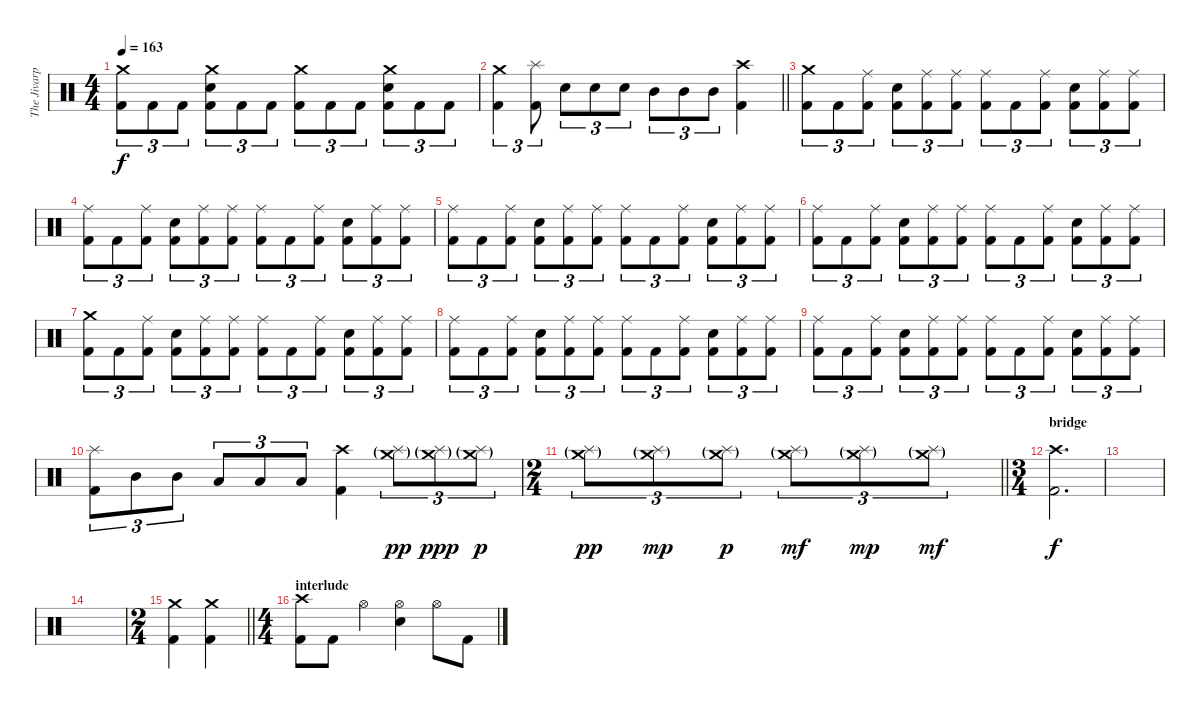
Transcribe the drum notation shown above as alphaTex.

\track ("The Jivarp" "The Jivarp") {instrument percussion}
\staff {score}
\articulation defaults
\ts (4 4)
\tempo 163
\clef neutral
\ks c
("Crash medium (hit)" "Kick (hit) 2").8{tu (3 2) dy f} "Kick (hit) 2".8{tu (3 2)} "Kick (hit) 2".8{tu (3 2)} ("Crash medium (hit)" "Electric Snare (hit)" "Kick (hit) 2").8{tu (3 2)} "Kick (hit) 2".8{tu (3 2)} "Kick (hit) 2".8{tu (3 2)} ("Crash medium (hit)" "Kick (hit) 2").8{tu (3 2)} "Kick (hit) 2".8{tu (3 2)} "Kick (hit) 2".8{tu (3 2)} ("Crash medium (hit)" "Electric Snare (hit)" "Kick (hit) 2").8{tu (3 2)} "Kick (hit) 2".8{tu (3 2)} "Kick (hit) 2".8{tu (3 2)} |
\barLineRight lightlight
("Crash medium (hit)" "Kick (hit) 2").4{tu (3 2)} ("Splash (hit)" "Kick (hit) 2").8{tu (3 2)} "Electric Snare (hit)".8{tu (3 2)} "Electric Snare (hit)".8{tu (3 2)} "Electric Snare (hit)".8{tu (3 2)} "Mid Tom (hit)".8{tu (3 2)} "Mid Tom (hit)".8{tu (3 2)} "Mid Tom (hit)".8{tu (3 2)} ("Crash high (hit)" "Kick (hit) 2").4 |
\section ("" "")
("Crash medium (hit)" "Kick (hit) 2").8{tu (3 2)} "Kick (hit) 2".8{tu (3 2)} ("Ride (middle)" "Kick (hit) 2").8{tu (3 2)} ("Electric Snare (hit)" "Kick (hit) 2").8{tu (3 2)} ("Ride (middle)" "Kick (hit) 2").8{tu (3 2)} ("Ride (middle)" "Kick (hit) 2").8{tu (3 2)} ("Ride (middle)" "Kick (hit) 2").8{tu (3 2)} "Kick (hit) 2".8{tu (3 2)} ("Ride (middle)" "Kick (hit) 2").8{tu (3 2)} ("Electric Snare (hit)" "Kick (hit) 2").8{tu (3 2)} ("Ride (middle)" "Kick (hit) 2").8{tu (3 2)} ("Ride (middle)" "Kick (hit) 2").8{tu (3 2)} |
("Ride (middle)" "Kick (hit) 2").8{tu (3 2)} "Kick (hit) 2".8{tu (3 2)} ("Ride (middle)" "Kick (hit) 2").8{tu (3 2)} ("Electric Snare (hit)" "Kick (hit) 2").8{tu (3 2)} ("Ride (middle)" "Kick (hit) 2").8{tu (3 2)} ("Ride (middle)" "Kick (hit) 2").8{tu (3 2)} ("Ride (middle)" "Kick (hit) 2").8{tu (3 2)} "Kick (hit) 2".8{tu (3 2)} ("Ride (middle)" "Kick (hit) 2").8{tu (3 2)} ("Electric Snare (hit)" "Kick (hit) 2").8{tu (3 2)} ("Ride (middle)" "Kick (hit) 2").8{tu (3 2)} ("Ride (middle)" "Kick (hit) 2").8{tu (3 2)} |
("Ride (middle)" "Kick (hit) 2").8{tu (3 2)} "Kick (hit) 2".8{tu (3 2)} ("Ride (middle)" "Kick (hit) 2").8{tu (3 2)} ("Electric Snare (hit)" "Kick (hit) 2").8{tu (3 2)} ("Ride (middle)" "Kick (hit) 2").8{tu (3 2)} ("Ride (middle)" "Kick (hit) 2").8{tu (3 2)} ("Ride (middle)" "Kick (hit) 2").8{tu (3 2)} "Kick (hit) 2".8{tu (3 2)} ("Ride (middle)" "Kick (hit) 2").8{tu (3 2)} ("Electric Snare (hit)" "Kick (hit) 2").8{tu (3 2)} ("Ride (middle)" "Kick (hit) 2").8{tu (3 2)} ("Ride (middle)" "Kick (hit) 2").8{tu (3 2)} |
("Ride (middle)" "Kick (hit) 2").8{tu (3 2)} "Kick (hit) 2".8{tu (3 2)} ("Ride (middle)" "Kick (hit) 2").8{tu (3 2)} ("Electric Snare (hit)" "Kick (hit) 2").8{tu (3 2)} ("Ride (middle)" "Kick (hit) 2").8{tu (3 2)} ("Ride (middle)" "Kick (hit) 2").8{tu (3 2)} ("Ride (middle)" "Kick (hit) 2").8{tu (3 2)} "Kick (hit) 2".8{tu (3 2)} ("Ride (middle)" "Kick (hit) 2").8{tu (3 2)} ("Electric Snare (hit)" "Kick (hit) 2").8{tu (3 2)} ("Ride (middle)" "Kick (hit) 2").8{tu (3 2)} ("Ride (middle)" "Kick (hit) 2").8{tu (3 2)} |
("Crash medium (hit)" "Kick (hit) 2").8{tu (3 2)} "Kick (hit) 2".8{tu (3 2)} ("Ride (middle)" "Kick (hit) 2").8{tu (3 2)} ("Electric Snare (hit)" "Kick (hit) 2").8{tu (3 2)} ("Ride (middle)" "Kick (hit) 2").8{tu (3 2)} ("Ride (middle)" "Kick (hit) 2").8{tu (3 2)} ("Ride (middle)" "Kick (hit) 2").8{tu (3 2)} "Kick (hit) 2".8{tu (3 2)} ("Ride (middle)" "Kick (hit) 2").8{tu (3 2)} ("Electric Snare (hit)" "Kick (hit) 2").8{tu (3 2)} ("Ride (middle)" "Kick (hit) 2").8{tu (3 2)} ("Ride (middle)" "Kick (hit) 2").8{tu (3 2)} |
("Ride (middle)" "Kick (hit) 2").8{tu (3 2)} "Kick (hit) 2".8{tu (3 2)} ("Ride (middle)" "Kick (hit) 2").8{tu (3 2)} ("Electric Snare (hit)" "Kick (hit) 2").8{tu (3 2)} ("Ride (middle)" "Kick (hit) 2").8{tu (3 2)} ("Ride (middle)" "Kick (hit) 2").8{tu (3 2)} ("Ride (middle)" "Kick (hit) 2").8{tu (3 2)} "Kick (hit) 2".8{tu (3 2)} ("Ride (middle)" "Kick (hit) 2").8{tu (3 2)} ("Electric Snare (hit)" "Kick (hit) 2").8{tu (3 2)} ("Ride (middle)" "Kick (hit) 2").8{tu (3 2)} ("Ride (middle)" "Kick (hit) 2").8{tu (3 2)} |
("Ride (middle)" "Kick (hit) 2").8{tu (3 2)} "Kick (hit) 2".8{tu (3 2)} ("Ride (middle)" "Kick (hit) 2").8{tu (3 2)} ("Electric Snare (hit)" "Kick (hit) 2").8{tu (3 2)} ("Ride (middle)" "Kick (hit) 2").8{tu (3 2)} ("Ride (middle)" "Kick (hit) 2").8{tu (3 2)} ("Ride (middle)" "Kick (hit) 2").8{tu (3 2)} "Kick (hit) 2".8{tu (3 2)} ("Ride (middle)" "Kick (hit) 2").8{tu (3 2)} ("Electric Snare (hit)" "Kick (hit) 2").8{tu (3 2)} ("Ride (middle)" "Kick (hit) 2").8{tu (3 2)} ("Ride (middle)" "Kick (hit) 2").8{tu (3 2)} |
("Splash (hit)" "Kick (hit) 2").8{tu (3 2)} "Mid Tom (hit)".8{tu (3 2)} "Mid Tom (hit)".8{tu (3 2)} "Low Tom (hit)".8{tu (3 2)} "Low Tom (hit)".8{tu (3 2)} "Low Tom (hit)".8{tu (3 2)} ("Crash high (hit)" "Kick (hit) 2").4 ("Crash medium (hit)"{g} "Splash (hit)"{g}).8{tu (3 2) dy pp} ("Crash medium (hit)"{g} "Splash (hit)"{g}).8{tu (3 2) dy ppp} ("Crash medium (hit)"{g} "Splash (hit)"{g}).8{tu (3 2) dy p} |
\ts (2 4)
\barLineRight lightlight
("Crash medium (hit)"{g} "Splash (hit)"{g}).8{tu (3 2) dy pp} ("Crash medium (hit)"{g} "Splash (hit)"{g}).8{tu (3 2) dy mp} ("Crash medium (hit)"{g} "Splash (hit)"{g}).8{tu (3 2) dy p} ("Crash medium (hit)"{g} "Splash (hit)"{g}).8{tu (3 2) dy mf} ("Crash medium (hit)"{g} "Splash (hit)"{g}).8{tu (3 2) dy mp} ("Crash medium (hit)"{g} "Splash (hit)"{g}).8{tu (3 2) dy mf} |
\ts (3 4)
\section ("" "bridge")
("Crash high (hit)" "Kick (hit) 2").2{d dy f} |
|
|
\ts (2 4)
\barLineRight lightlight
("Crash medium (hit)" "Kick (hit) 2").4 ("Crash medium (hit)" "Kick (hit) 2").4 |
\ts (4 4)
\section ("" "interlude")
("Crash high (hit)" "Kick (hit) 2").8 "Kick (hit) 2".8 "Hi-Hat (open)".4 ("Hi-Hat (open)" "Electric Snare (hit)").4 "Hi-Hat (open)".8 "Kick (hit) 2".8
